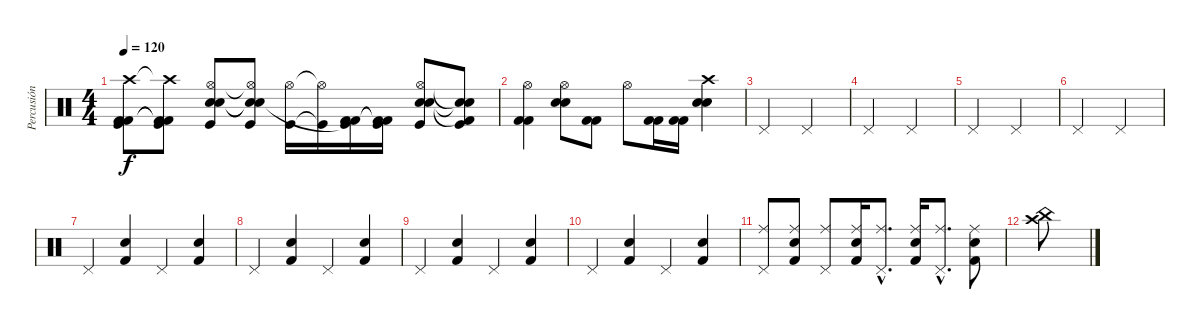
\track ("Percusión" "Percusión") {instrument percussion}
\staff {score}
\articulation defaults
\ts (4 4)
\tempo 120
\clef neutral
\ks c
("Crash high (hit)" "Kick (hit) 2" "Kick (hit) 2" "Kick (hit)").8{dy f} ("Crash high (hit)"{t} "Kick (hit) 2"{t} "Kick (hit) 2"{t} "Kick (hit)").8 ("Hi-Hat (open)" "Electric Snare (hit)" "Electric Snare (hit)" "Kick (hit)").8 ("Hi-Hat (open)"{t} "Electric Snare (hit)"{t} "Electric Snare (hit)"{t} "Kick (hit)").8 ("Hi-Hat (open)" "Kick (hit)").16 ("Hi-Hat (open)"{t} "Kick (hit)"{t}).16 ("Kick (hit) 2" "Kick (hit) 2" "Kick (hit)"{t}).16 ("Kick (hit) 2"{t} "Kick (hit) 2"{t} "Kick (hit)").16 ("Hi-Hat (open)" "Electric Snare (hit)" "Electric Snare (hit)" "Kick (hit)").8 ("Snare (hit)"{t} "Snare (hit)"{t} "Kick (hit) 2"{t} "Kick (hit)").8 |
("Hi-Hat (open)" "Kick (hit) 2" "Kick (hit) 2").4 ("Hi-Hat (open)" "Electric Snare (hit)" "Electric Snare (hit)").8 ("Kick (hit) 2" "Kick (hit) 2").8 "Hi-Hat (open)".8 ("Kick (hit) 2" "Kick (hit) 2").16 ("Kick (hit) 2" "Kick (hit) 2").16 ("Crash high (hit)" "Electric Snare (hit)" "Electric Snare (hit)").4 |
"Pedal Hi-Hat (hit)".2 "Pedal Hi-Hat (hit)".2 |
"Pedal Hi-Hat (hit)".2 "Pedal Hi-Hat (hit)".2 |
"Pedal Hi-Hat (hit)".2 "Pedal Hi-Hat (hit)".2 |
"Pedal Hi-Hat (hit)".2 "Pedal Hi-Hat (hit)".2 |
"Pedal Hi-Hat (hit)".4 ("Kick (hit) 2" "Snare (hit) 2").4 "Pedal Hi-Hat (hit)".4 ("Kick (hit) 2" "Snare (hit) 2").4 |
"Pedal Hi-Hat (hit)".4 ("Kick (hit) 2" "Snare (hit) 2").4 "Pedal Hi-Hat (hit)".4 ("Kick (hit) 2" "Snare (hit) 2").4 |
"Pedal Hi-Hat (hit)".4 ("Kick (hit) 2" "Snare (hit) 2").4 "Pedal Hi-Hat (hit)".4 ("Kick (hit) 2" "Snare (hit) 2").4 |
"Pedal Hi-Hat (hit)".4 ("Kick (hit) 2" "Snare (hit) 2").4 "Pedal Hi-Hat (hit)".4 ("Kick (hit) 2" "Snare (hit) 2").4 |
("Ride (middle)" "Pedal Hi-Hat (hit)").8 ("Ride (middle)" "Kick (hit) 2" "Snare (hit) 2").8 ("Ride (middle)" "Pedal Hi-Hat (hit)").8 ("Ride (middle)" "Kick (hit) 2" "Snare (hit) 2").16 ("Ride (middle)"{hac} "Pedal Hi-Hat (hit)"{hac}).8{d} ("Ride (middle)" "Kick (hit) 2" "Snare (hit) 2").16 ("Ride (middle)"{hac} "Pedal Hi-Hat (hit)"{hac}).8{d} ("Ride (middle)" "Kick (hit) 2" "Snare (hit) 2").8 |
("Crash high (hit)" "China (hit)").8
